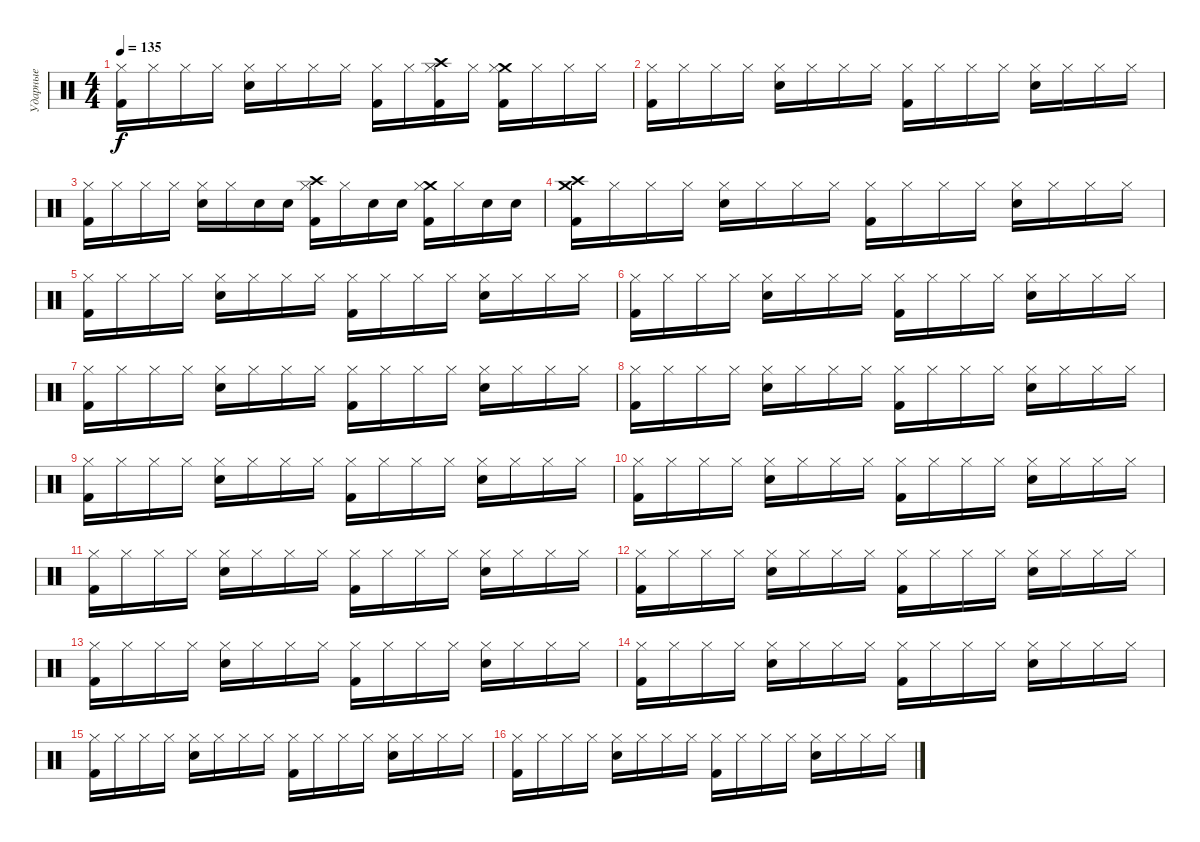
\track ("Ударные" "Ударные") {instrument percussion}
\staff {score}
\articulation defaults
\ts (4 4)
\tempo 135
\clef neutral
\ks c
("Hi-Hat (closed)" "Kick (hit) 2").16{dy f} "Hi-Hat (closed)".16 "Hi-Hat (closed)".16 "Hi-Hat (closed)".16 ("Hi-Hat (closed)" "Snare (hit) 2").16 "Hi-Hat (closed)".16 "Hi-Hat (closed)".16 "Hi-Hat (closed)".16 ("Hi-Hat (closed)" "Kick (hit) 2").16 "Hi-Hat (closed)".16 ("Crash high (hit)" "Hi-Hat (closed)" "Kick (hit) 2").16 "Hi-Hat (closed)".16 ("Crash medium (hit)" "Hi-Hat (closed)" "Kick (hit) 2").16 "Hi-Hat (closed)".16 "Hi-Hat (closed)".16 "Hi-Hat (closed)".16 |
("Hi-Hat (closed)" "Kick (hit) 2").16 "Hi-Hat (closed)".16 "Hi-Hat (closed)".16 "Hi-Hat (closed)".16 ("Hi-Hat (closed)" "Snare (hit) 2").16 "Hi-Hat (closed)".16 "Hi-Hat (closed)".16 "Hi-Hat (closed)".16 ("Hi-Hat (closed)" "Kick (hit) 2").16 "Hi-Hat (closed)".16 "Hi-Hat (closed)".16 "Hi-Hat (closed)".16 ("Hi-Hat (closed)" "Snare (hit) 2").16 "Hi-Hat (closed)".16 "Hi-Hat (closed)".16 "Hi-Hat (closed)".16 |
("Hi-Hat (closed)" "Kick (hit) 2").16 "Hi-Hat (closed)".16 "Hi-Hat (closed)".16 "Hi-Hat (closed)".16 ("Hi-Hat (closed)" "Snare (hit) 2").16 "Hi-Hat (closed)".16 "Snare (hit) 2".16 "Snare (hit) 2".16 ("Crash high (hit)" "Hi-Hat (closed)" "Kick (hit) 2").16 "Hi-Hat (closed)".16 "Snare (hit) 2".16 "Snare (hit) 2".16 ("Crash medium (hit)" "Hi-Hat (closed)" "Kick (hit) 2").16 "Hi-Hat (closed)".16 "Snare (hit) 2".16 "Snare (hit) 2".16 |
("Crash medium (hit)" "Crash high (hit)" "Kick (hit) 2").16 "Hi-Hat (closed)".16 "Hi-Hat (closed)".16 "Hi-Hat (closed)".16 ("Hi-Hat (closed)" "Snare (hit) 2").16 "Hi-Hat (closed)".16 "Hi-Hat (closed)".16 "Hi-Hat (closed)".16 ("Hi-Hat (closed)" "Kick (hit) 2").16 "Hi-Hat (closed)".16 "Hi-Hat (closed)".16 "Hi-Hat (closed)".16 ("Hi-Hat (closed)" "Snare (hit) 2").16 "Hi-Hat (closed)".16 "Hi-Hat (closed)".16 "Hi-Hat (closed)".16 |
("Hi-Hat (closed)" "Kick (hit) 2").16 "Hi-Hat (closed)".16 "Hi-Hat (closed)".16 "Hi-Hat (closed)".16 ("Hi-Hat (closed)" "Snare (hit) 2").16 "Hi-Hat (closed)".16 "Hi-Hat (closed)".16 "Hi-Hat (closed)".16 ("Hi-Hat (closed)" "Kick (hit) 2").16 "Hi-Hat (closed)".16 "Hi-Hat (closed)".16 "Hi-Hat (closed)".16 ("Hi-Hat (closed)" "Snare (hit) 2").16 "Hi-Hat (closed)".16 "Hi-Hat (closed)".16 "Hi-Hat (closed)".16 |
("Hi-Hat (closed)" "Kick (hit) 2").16 "Hi-Hat (closed)".16 "Hi-Hat (closed)".16 "Hi-Hat (closed)".16 ("Hi-Hat (closed)" "Snare (hit) 2").16 "Hi-Hat (closed)".16 "Hi-Hat (closed)".16 "Hi-Hat (closed)".16 ("Hi-Hat (closed)" "Kick (hit) 2").16 "Hi-Hat (closed)".16 "Hi-Hat (closed)".16 "Hi-Hat (closed)".16 ("Hi-Hat (closed)" "Snare (hit) 2").16 "Hi-Hat (closed)".16 "Hi-Hat (closed)".16 "Hi-Hat (closed)".16 |
("Hi-Hat (closed)" "Kick (hit) 2").16 "Hi-Hat (closed)".16 "Hi-Hat (closed)".16 "Hi-Hat (closed)".16 ("Hi-Hat (closed)" "Snare (hit) 2").16 "Hi-Hat (closed)".16 "Hi-Hat (closed)".16 "Hi-Hat (closed)".16 ("Hi-Hat (closed)" "Kick (hit) 2").16 "Hi-Hat (closed)".16 "Hi-Hat (closed)".16 "Hi-Hat (closed)".16 ("Hi-Hat (closed)" "Snare (hit) 2").16 "Hi-Hat (closed)".16 "Hi-Hat (closed)".16 "Hi-Hat (closed)".16 |
("Hi-Hat (closed)" "Kick (hit) 2").16 "Hi-Hat (closed)".16 "Hi-Hat (closed)".16 "Hi-Hat (closed)".16 ("Hi-Hat (closed)" "Snare (hit) 2").16 "Hi-Hat (closed)".16 "Hi-Hat (closed)".16 "Hi-Hat (closed)".16 ("Hi-Hat (closed)" "Kick (hit) 2").16 "Hi-Hat (closed)".16 "Hi-Hat (closed)".16 "Hi-Hat (closed)".16 ("Hi-Hat (closed)" "Snare (hit) 2").16 "Hi-Hat (closed)".16 "Hi-Hat (closed)".16 "Hi-Hat (closed)".16 |
("Hi-Hat (closed)" "Kick (hit) 2").16 "Hi-Hat (closed)".16 "Hi-Hat (closed)".16 "Hi-Hat (closed)".16 ("Hi-Hat (closed)" "Snare (hit) 2").16 "Hi-Hat (closed)".16 "Hi-Hat (closed)".16 "Hi-Hat (closed)".16 ("Hi-Hat (closed)" "Kick (hit) 2").16 "Hi-Hat (closed)".16 "Hi-Hat (closed)".16 "Hi-Hat (closed)".16 ("Hi-Hat (closed)" "Snare (hit) 2").16 "Hi-Hat (closed)".16 "Hi-Hat (closed)".16 "Hi-Hat (closed)".16 |
("Hi-Hat (closed)" "Kick (hit) 2").16 "Hi-Hat (closed)".16 "Hi-Hat (closed)".16 "Hi-Hat (closed)".16 ("Hi-Hat (closed)" "Snare (hit) 2").16 "Hi-Hat (closed)".16 "Hi-Hat (closed)".16 "Hi-Hat (closed)".16 ("Hi-Hat (closed)" "Kick (hit) 2").16 "Hi-Hat (closed)".16 "Hi-Hat (closed)".16 "Hi-Hat (closed)".16 ("Hi-Hat (closed)" "Snare (hit) 2").16 "Hi-Hat (closed)".16 "Hi-Hat (closed)".16 "Hi-Hat (closed)".16 |
("Hi-Hat (closed)" "Kick (hit) 2").16 "Hi-Hat (closed)".16 "Hi-Hat (closed)".16 "Hi-Hat (closed)".16 ("Hi-Hat (closed)" "Snare (hit) 2").16 "Hi-Hat (closed)".16 "Hi-Hat (closed)".16 "Hi-Hat (closed)".16 ("Hi-Hat (closed)" "Kick (hit) 2").16 "Hi-Hat (closed)".16 "Hi-Hat (closed)".16 "Hi-Hat (closed)".16 ("Hi-Hat (closed)" "Snare (hit) 2").16 "Hi-Hat (closed)".16 "Hi-Hat (closed)".16 "Hi-Hat (closed)".16 |
("Hi-Hat (closed)" "Kick (hit) 2").16 "Hi-Hat (closed)".16 "Hi-Hat (closed)".16 "Hi-Hat (closed)".16 ("Hi-Hat (closed)" "Snare (hit) 2").16 "Hi-Hat (closed)".16 "Hi-Hat (closed)".16 "Hi-Hat (closed)".16 ("Hi-Hat (closed)" "Kick (hit) 2").16 "Hi-Hat (closed)".16 "Hi-Hat (closed)".16 "Hi-Hat (closed)".16 ("Hi-Hat (closed)" "Snare (hit) 2").16 "Hi-Hat (closed)".16 "Hi-Hat (closed)".16 "Hi-Hat (closed)".16 |
("Hi-Hat (closed)" "Kick (hit) 2").16 "Hi-Hat (closed)".16 "Hi-Hat (closed)".16 "Hi-Hat (closed)".16 ("Hi-Hat (closed)" "Snare (hit) 2").16 "Hi-Hat (closed)".16 "Hi-Hat (closed)".16 "Hi-Hat (closed)".16 ("Hi-Hat (closed)" "Kick (hit) 2").16 "Hi-Hat (closed)".16 "Hi-Hat (closed)".16 "Hi-Hat (closed)".16 ("Hi-Hat (closed)" "Snare (hit) 2").16 "Hi-Hat (closed)".16 "Hi-Hat (closed)".16 "Hi-Hat (closed)".16 |
("Hi-Hat (closed)" "Kick (hit) 2").16 "Hi-Hat (closed)".16 "Hi-Hat (closed)".16 "Hi-Hat (closed)".16 ("Hi-Hat (closed)" "Snare (hit) 2").16 "Hi-Hat (closed)".16 "Hi-Hat (closed)".16 "Hi-Hat (closed)".16 ("Hi-Hat (closed)" "Kick (hit) 2").16 "Hi-Hat (closed)".16 "Hi-Hat (closed)".16 "Hi-Hat (closed)".16 ("Hi-Hat (closed)" "Snare (hit) 2").16 "Hi-Hat (closed)".16 "Hi-Hat (closed)".16 "Hi-Hat (closed)".16 |
("Hi-Hat (closed)" "Kick (hit) 2").16 "Hi-Hat (closed)".16 "Hi-Hat (closed)".16 "Hi-Hat (closed)".16 ("Hi-Hat (closed)" "Snare (hit) 2").16 "Hi-Hat (closed)".16 "Hi-Hat (closed)".16 "Hi-Hat (closed)".16 ("Hi-Hat (closed)" "Kick (hit) 2").16 "Hi-Hat (closed)".16 "Hi-Hat (closed)".16 "Hi-Hat (closed)".16 ("Hi-Hat (closed)" "Snare (hit) 2").16 "Hi-Hat (closed)".16 "Hi-Hat (closed)".16 "Hi-Hat (closed)".16 |
("Hi-Hat (closed)" "Kick (hit) 2").16 "Hi-Hat (closed)".16 "Hi-Hat (closed)".16 "Hi-Hat (closed)".16 ("Hi-Hat (closed)" "Snare (hit) 2").16 "Hi-Hat (closed)".16 "Hi-Hat (closed)".16 "Hi-Hat (closed)".16 ("Hi-Hat (closed)" "Kick (hit) 2").16 "Hi-Hat (closed)".16 "Hi-Hat (closed)".16 "Hi-Hat (closed)".16 ("Hi-Hat (closed)" "Snare (hit) 2").16 "Hi-Hat (closed)".16 "Hi-Hat (closed)".16 "Hi-Hat (closed)".16
